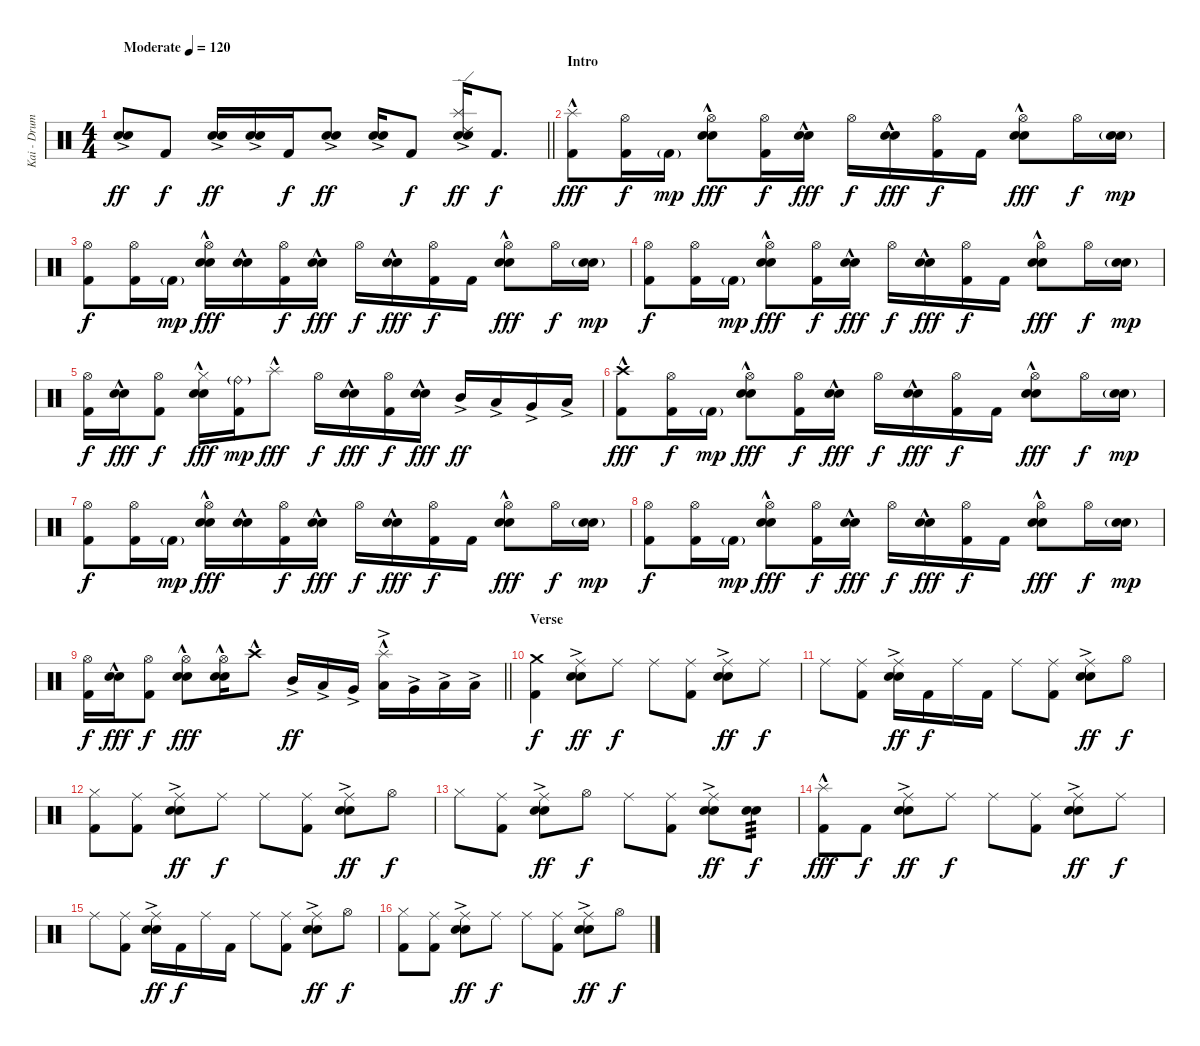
\track ("Kai - Drums" "Kai - Drum") {instrument percussion}
\staff {score}
\articulation defaults
\ts (4 4)
\tempo (120 "Moderate")
\clef neutral
\barLineRight lightlight
\ks c
("Electric Snare (hit)"{ac} "Snare (hit) 2"{ac}).8{dy ff} "Kick (hit) 2".8{dy f} ("Electric Snare (hit)"{ac} "Snare (hit) 2"{ac}).16{dy ff} ("Electric Snare (hit)"{ac} "Snare (hit) 2"{ac}).16 "Kick (hit) 2".16{dy f} ("Electric Snare (hit)"{ac} "Snare (hit) 2"{ac}).8{dy ff} ("Electric Snare (hit)"{ac} "Snare (hit) 2"{ac}).16 "Kick (hit) 2".8{dy f} ("Splash (hit)"{ac} "Ride (edge) 2"{ac} "Electric Snare (hit)"{ac} "Snare (hit) 2"{ac}).16{dy ff} "Kick (hit) 2".8{d dy f} |
\section ("" "Intro")
("Splash (hit)"{hac} "Kick (hit) 2").8{dy fff} ("Hi-Hat (open)" "Kick (hit) 2").16{dy f} "Kick (hit) 2"{g}.16{dy mp} ("Hi-Hat (open)" "Electric Snare (hit)"{hac} "Snare (hit) 2").8{dy fff} ("Hi-Hat (open)" "Kick (hit) 2").16{dy f} ("Electric Snare (hit)"{hac} "Snare (hit) 2").16{dy fff} "Hi-Hat (open)".16{dy f} ("Electric Snare (hit)"{hac} "Snare (hit) 2").16{dy fff} ("Hi-Hat (open)" "Kick (hit) 2").16{dy f} "Kick (hit) 2".16 ("Hi-Hat (open)" "Electric Snare (hit)"{hac} "Snare (hit) 2").8{dy fff} "Hi-Hat (open)".16{dy f} ("Electric Snare (hit)"{g} "Snare (hit) 2"{g}).16{dy mp} |
("Hi-Hat (open)" "Kick (hit) 2").8{dy f} ("Hi-Hat (open)" "Kick (hit) 2").16 "Kick (hit) 2"{g}.16{dy mp} ("Hi-Hat (open)" "Electric Snare (hit)"{hac} "Snare (hit) 2").16{dy fff} ("Electric Snare (hit)"{hac} "Snare (hit) 2").16 ("Hi-Hat (open)" "Kick (hit) 2").16{dy f} ("Electric Snare (hit)"{hac} "Snare (hit) 2").16{dy fff} "Hi-Hat (open)".16{dy f} ("Electric Snare (hit)"{hac} "Snare (hit) 2").16{dy fff} ("Hi-Hat (open)" "Kick (hit) 2").16{dy f} "Kick (hit) 2".16 ("Hi-Hat (open)" "Electric Snare (hit)"{hac} "Snare (hit) 2").8{dy fff} "Hi-Hat (open)".16{dy f} ("Electric Snare (hit)"{g} "Snare (hit) 2"{g}).16{dy mp} |
("Hi-Hat (open)" "Kick (hit) 2").8{dy f} ("Hi-Hat (open)" "Kick (hit) 2").16 "Kick (hit) 2"{g}.16{dy mp} ("Hi-Hat (open)" "Electric Snare (hit)"{hac} "Snare (hit) 2").8{dy fff} ("Hi-Hat (open)" "Kick (hit) 2").16{dy f} ("Electric Snare (hit)"{hac} "Snare (hit) 2").16{dy fff} "Hi-Hat (open)".16{dy f} ("Electric Snare (hit)"{hac} "Snare (hit) 2").16{dy fff} ("Hi-Hat (open)" "Kick (hit) 2").16{dy f} "Kick (hit) 2".16 ("Hi-Hat (open)" "Electric Snare (hit)"{hac} "Snare (hit) 2").8{dy fff} "Hi-Hat (open)".16{dy f} ("Electric Snare (hit)"{g} "Snare (hit) 2"{g}).16{dy mp} |
("Hi-Hat (open)" "Kick (hit) 2").16{dy f} ("Electric Snare (hit)"{hac} "Snare (hit) 2").16{dy fff} ("Hi-Hat (open)" "Kick (hit) 2").8{dy f} ("Hi-Hat (closed)" "Electric Snare (hit)"{hac} "Snare (hit) 2").16{dy fff} ("Ride (bell)"{g} "Kick (hit) 2").16{dy mp} "Splash (hit)"{hac}.8{dy fff} "Hi-Hat (open)".16{dy f} ("Electric Snare (hit)"{hac} "Snare (hit) 2").16{dy fff} ("Hi-Hat (open)" "Kick (hit) 2").16{dy f} ("Electric Snare (hit)"{hac} "Snare (hit) 2").16{dy fff} "Mid Tom (hit)"{ac}.16{dy ff} "Low Tom (hit)"{ac}.16 "Very Low Tom (hit)"{ac}.16 "Low Floor Tom (hit)"{ac}.16 |
("Crash high (hit)"{hac} "Kick (hit) 2").8{dy fff} ("Hi-Hat (open)" "Kick (hit) 2").16{dy f} "Kick (hit) 2"{g}.16{dy mp} ("Hi-Hat (open)" "Electric Snare (hit)"{hac} "Snare (hit) 2").8{dy fff} ("Hi-Hat (open)" "Kick (hit) 2").16{dy f} ("Electric Snare (hit)"{hac} "Snare (hit) 2").16{dy fff} "Hi-Hat (open)".16{dy f} ("Electric Snare (hit)"{hac} "Snare (hit) 2").16{dy fff} ("Hi-Hat (open)" "Kick (hit) 2").16{dy f} "Kick (hit) 2".16 ("Hi-Hat (open)" "Electric Snare (hit)"{hac} "Snare (hit) 2").8{dy fff} "Hi-Hat (open)".16{dy f} ("Electric Snare (hit)"{g} "Snare (hit) 2"{g}).16{dy mp} |
("Hi-Hat (open)" "Kick (hit) 2").8{dy f} ("Hi-Hat (open)" "Kick (hit) 2").16 "Kick (hit) 2"{g}.16{dy mp} ("Hi-Hat (open)" "Electric Snare (hit)"{hac} "Snare (hit) 2").16{dy fff} ("Electric Snare (hit)"{hac} "Snare (hit) 2").16 ("Hi-Hat (open)" "Kick (hit) 2").16{dy f} ("Electric Snare (hit)"{hac} "Snare (hit) 2").16{dy fff} "Hi-Hat (open)".16{dy f} ("Electric Snare (hit)"{hac} "Snare (hit) 2").16{dy fff} ("Hi-Hat (open)" "Kick (hit) 2").16{dy f} "Kick (hit) 2".16 ("Hi-Hat (open)" "Electric Snare (hit)"{hac} "Snare (hit) 2").8{dy fff} "Hi-Hat (open)".16{dy f} ("Electric Snare (hit)"{g} "Snare (hit) 2"{g}).16{dy mp} |
("Hi-Hat (open)" "Kick (hit) 2").8{dy f} ("Hi-Hat (open)" "Kick (hit) 2").16 "Kick (hit) 2"{g}.16{dy mp} ("Hi-Hat (open)" "Electric Snare (hit)"{hac} "Snare (hit) 2").8{dy fff} ("Hi-Hat (open)" "Kick (hit) 2").16{dy f} ("Electric Snare (hit)"{hac} "Snare (hit) 2").16{dy fff} "Hi-Hat (open)".16{dy f} ("Electric Snare (hit)"{hac} "Snare (hit) 2").16{dy fff} ("Hi-Hat (open)" "Kick (hit) 2").16{dy f} "Kick (hit) 2".16 ("Hi-Hat (open)" "Electric Snare (hit)"{hac} "Snare (hit) 2").8{dy fff} "Hi-Hat (open)".16{dy f} ("Electric Snare (hit)"{g} "Snare (hit) 2"{g}).16{dy mp} |
\barLineRight lightlight
("Hi-Hat (open)" "Kick (hit) 2").16{dy f} ("Electric Snare (hit)"{hac} "Snare (hit) 2").16{dy fff} ("Hi-Hat (open)" "Kick (hit) 2").8{dy f} ("Hi-Hat (open)" "Electric Snare (hit)"{hac} "Snare (hit) 2").8{dy fff} ("Hi-Hat (open)" "Electric Snare (hit)"{hac} "Snare (hit) 2").16 "Crash high (hit)"{hac}.8 "Mid Tom (hit)"{ac}.16{dy ff} "Low Tom (hit)"{ac}.16 "Very Low Tom (hit)"{ac}.16 ("Splash (hit)"{hac} "Low Tom (hit)"{ac}).16 "Very Low Tom (hit)"{ac}.16 "Low Floor Tom (hit)"{ac}.16 "Low Floor Tom (hit)"{ac}.16 |
\section ("" "Verse")
("Crash medium (hit)" "Kick (hit) 2").4{dy f} ("Ride (middle)" "Electric Snare (hit)"{ac} "Snare (hit) 2"{ac}).8{dy ff} "Ride (middle)".8{dy f} "Ride (middle)".8 ("Ride (middle)" "Kick (hit) 2").8 ("Ride (middle)" "Electric Snare (hit)"{ac} "Snare (hit) 2"{ac}).8{dy ff} "Ride (middle)".8{dy f} |
"Ride (middle)".8 ("Ride (middle)" "Kick (hit) 2").8 ("Ride (middle)" "Electric Snare (hit)"{ac} "Snare (hit) 2"{ac}).16{dy ff} "Kick (hit) 2".16{dy f} "Ride (middle)".16 "Kick (hit) 2".16 "Ride (middle)".8 ("Ride (middle)" "Kick (hit) 2").8 ("Ride (middle)" "Electric Snare (hit)"{ac} "Snare (hit) 2"{ac}).8{dy ff} "Hi-Hat (open)".8{dy f} |
("Hi-Hat (closed)" "Kick (hit) 2").8 ("Ride (middle)" "Kick (hit) 2").8 ("Ride (middle)" "Electric Snare (hit)"{ac} "Snare (hit) 2"{ac}).8{dy ff} "Ride (middle)".8{dy f} "Ride (middle)".8 ("Ride (middle)" "Kick (hit) 2").8 ("Ride (middle)" "Electric Snare (hit)"{ac} "Snare (hit) 2"{ac}).8{dy ff} "Hi-Hat (open)".8{dy f} |
"Hi-Hat (closed)".8 ("Ride (middle)" "Kick (hit) 2").8 ("Ride (middle)" "Electric Snare (hit)"{ac} "Snare (hit) 2"{ac}).8{dy ff} "Hi-Hat (open)".8{dy f} "Ride (middle)".8 ("Ride (middle)" "Kick (hit) 2").8 ("Ride (middle)" "Electric Snare (hit)"{ac} "Snare (hit) 2"{ac}).8{dy ff} ("Electric Snare (hit)" "Snare (hit) 2").8{tp 3 dy f} |
("Splash (hit)"{hac} "Kick (hit) 2").8{dy fff} "Kick (hit) 2".8{dy f} ("Ride (middle)" "Electric Snare (hit)"{ac} "Snare (hit) 2"{ac}).8{dy ff} "Ride (middle)".8{dy f} "Ride (middle)".8 ("Ride (middle)" "Kick (hit) 2").8 ("Ride (middle)" "Electric Snare (hit)"{ac} "Snare (hit) 2"{ac}).8{dy ff} "Ride (middle)".8{dy f} |
"Ride (middle)".8 ("Ride (middle)" "Kick (hit) 2").8 ("Ride (middle)" "Electric Snare (hit)"{ac} "Snare (hit) 2"{ac}).16{dy ff} "Kick (hit) 2".16{dy f} "Ride (middle)".16 "Kick (hit) 2".16 "Ride (middle)".8 ("Ride (middle)" "Kick (hit) 2").8 ("Ride (middle)" "Electric Snare (hit)"{ac} "Snare (hit) 2"{ac}).8{dy ff} "Hi-Hat (open)".8{dy f} |
("Hi-Hat (closed)" "Kick (hit) 2").8 ("Ride (middle)" "Kick (hit) 2").8 ("Ride (middle)" "Electric Snare (hit)"{ac} "Snare (hit) 2"{ac}).8{dy ff} "Ride (middle)".8{dy f} "Ride (middle)".8 ("Ride (middle)" "Kick (hit) 2").8 ("Ride (middle)" "Electric Snare (hit)"{ac} "Snare (hit) 2"{ac}).8{dy ff} "Hi-Hat (open)".8{dy f}
